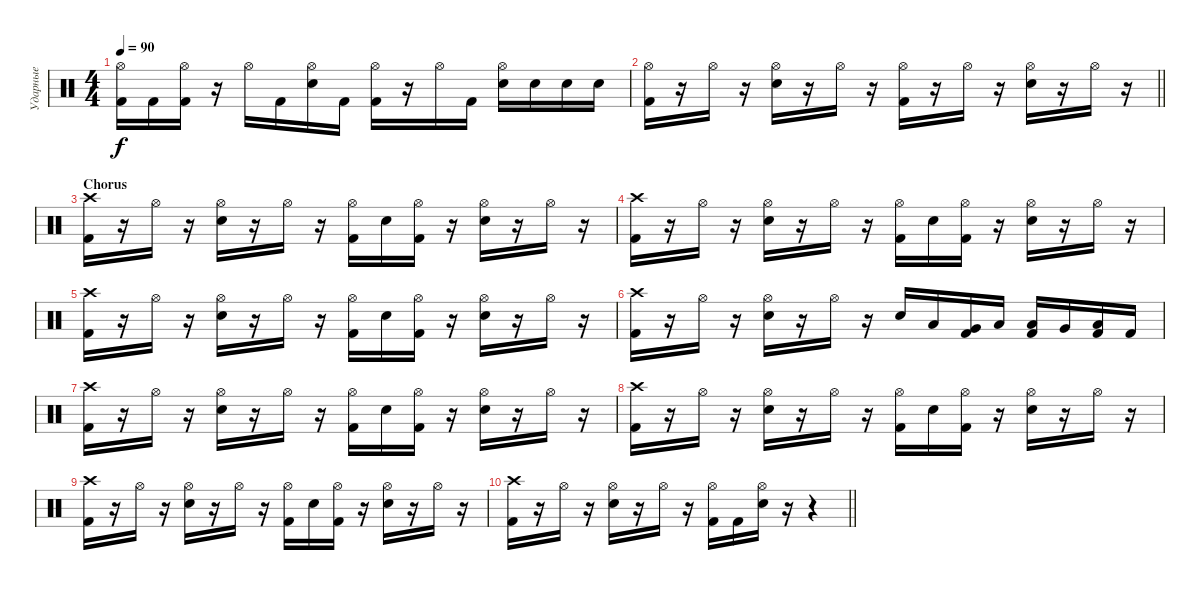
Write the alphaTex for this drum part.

\track ("Ударные" "Ударные") {instrument percussion}
\staff {score}
\articulation defaults
\ts (4 4)
\tempo 90
\clef neutral
\ks c
("Hi-Hat (open)" "Kick (hit) 2").16{dy f} "Kick (hit) 2".16 ("Hi-Hat (open)" "Kick (hit) 2").16 r.16 "Hi-Hat (open)".16 "Kick (hit) 2".16 ("Hi-Hat (open)" "Snare (hit) 2").16 "Kick (hit) 2".16 ("Hi-Hat (open)" "Kick (hit) 2").16 r.16 "Hi-Hat (open)".16 "Kick (hit) 2".16 ("Hi-Hat (open)" "Snare (hit) 2").16 "Snare (hit) 2".16 "Snare (hit) 2".16 "Snare (hit) 2".16 |
\barLineRight lightlight
("Hi-Hat (open)" "Kick (hit) 2").16 r.16 "Hi-Hat (open)".16 r.16 ("Hi-Hat (open)" "Snare (hit) 2").16 r.16 "Hi-Hat (open)".16 r.16 ("Hi-Hat (open)" "Kick (hit) 2").16 r.16 "Hi-Hat (open)".16 r.16 ("Hi-Hat (open)" "Snare (hit) 2").16 r.16 "Hi-Hat (open)".16 r.16 |
\section ("" "Chorus")
("Crash high (hit)" "Kick (hit) 2").16 r.16 "Hi-Hat (open)".16 r.16 ("Hi-Hat (open)" "Snare (hit) 2").16 r.16 "Hi-Hat (open)".16 r.16 ("Hi-Hat (open)" "Kick (hit) 2").16 "Snare (hit) 2".16 ("Hi-Hat (open)" "Kick (hit) 2").16 r.16 ("Hi-Hat (open)" "Snare (hit) 2").16 r.16 "Hi-Hat (open)".16 r.16 |
("Crash high (hit)" "Kick (hit) 2").16 r.16 "Hi-Hat (open)".16 r.16 ("Hi-Hat (open)" "Snare (hit) 2").16 r.16 "Hi-Hat (open)".16 r.16 ("Hi-Hat (open)" "Kick (hit) 2").16 "Snare (hit) 2".16 ("Hi-Hat (open)" "Kick (hit) 2").16 r.16 ("Hi-Hat (open)" "Snare (hit) 2").16 r.16 "Hi-Hat (open)".16 r.16 |
("Crash high (hit)" "Kick (hit) 2").16 r.16 "Hi-Hat (open)".16 r.16 ("Hi-Hat (open)" "Snare (hit) 2").16 r.16 "Hi-Hat (open)".16 r.16 ("Hi-Hat (open)" "Kick (hit) 2").16 "Snare (hit) 2".16 ("Hi-Hat (open)" "Kick (hit) 2").16 r.16 ("Hi-Hat (open)" "Snare (hit) 2").16 r.16 "Hi-Hat (open)".16 r.16 |
("Crash high (hit)" "Kick (hit) 2").16 r.16 "Hi-Hat (open)".16 r.16 ("Hi-Hat (open)" "Snare (hit) 2").16 r.16 "Hi-Hat (open)".16 r.16 "Snare (hit) 2".16 "Low Tom (hit)".16 ("Very Low Tom (hit)" "Kick (hit) 2").16 "Low Floor Tom (hit)".16 ("Low Tom (hit)" "Kick (hit) 2").16 "Very Low Tom (hit)".16 ("Low Floor Tom (hit)" "Kick (hit) 2").16 "Kick (hit) 2".16 |
("Crash high (hit)" "Kick (hit) 2").16 r.16 "Hi-Hat (open)".16 r.16 ("Hi-Hat (open)" "Snare (hit) 2").16 r.16 "Hi-Hat (open)".16 r.16 ("Hi-Hat (open)" "Kick (hit) 2").16 "Snare (hit) 2".16 ("Hi-Hat (open)" "Kick (hit) 2").16 r.16 ("Hi-Hat (open)" "Snare (hit) 2").16 r.16 "Hi-Hat (open)".16 r.16 |
("Crash high (hit)" "Kick (hit) 2").16 r.16 "Hi-Hat (open)".16 r.16 ("Hi-Hat (open)" "Snare (hit) 2").16 r.16 "Hi-Hat (open)".16 r.16 ("Hi-Hat (open)" "Kick (hit) 2").16 "Snare (hit) 2".16 ("Hi-Hat (open)" "Kick (hit) 2").16 r.16 ("Hi-Hat (open)" "Snare (hit) 2").16 r.16 "Hi-Hat (open)".16 r.16 |
("Crash high (hit)" "Kick (hit) 2").16 r.16 "Hi-Hat (open)".16 r.16 ("Hi-Hat (open)" "Snare (hit) 2").16 r.16 "Hi-Hat (open)".16 r.16 ("Hi-Hat (open)" "Kick (hit) 2").16 "Snare (hit) 2".16 ("Hi-Hat (open)" "Kick (hit) 2").16 r.16 ("Hi-Hat (open)" "Snare (hit) 2").16 r.16 "Hi-Hat (open)".16 r.16 |
\barLineRight lightlight
("Crash high (hit)" "Kick (hit) 2").16 r.16 "Hi-Hat (open)".16 r.16 ("Hi-Hat (open)" "Snare (hit) 2").16 r.16 "Hi-Hat (open)".16 r.16 ("Hi-Hat (open)" "Kick (hit) 2").16 "Kick (hit) 2".16 ("Hi-Hat (open)" "Snare (hit) 2").16 r.16 r.4
